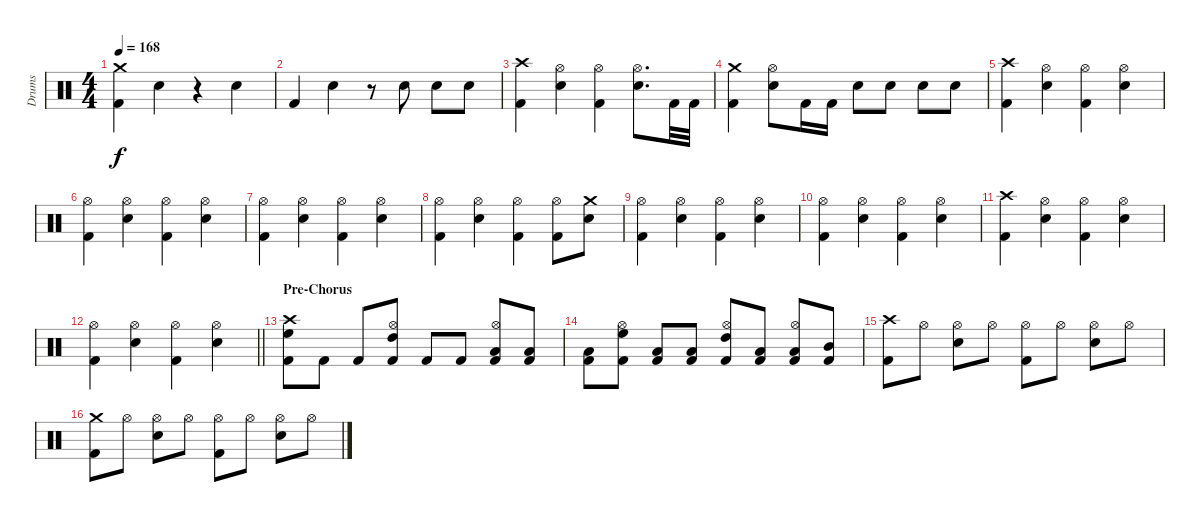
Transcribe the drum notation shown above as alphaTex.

\track ("Drums" "Drums") {instrument percussion}
\staff {score}
\articulation defaults
\ts (4 4)
\tempo 168
\clef neutral
\ks c
("Crash medium (hit)" "Kick (hit) 2").4{dy f} "Snare (hit) 2".4 r.4 "Snare (hit) 2".4 |
"Kick (hit) 2".4 "Snare (hit) 2".4 r.8 "Snare (hit) 2".8 "Snare (hit) 2".8 "Snare (hit) 2".8 |
("Crash high (hit)" "Kick (hit) 2").4 ("Hi-Hat (open)" "Snare (hit) 2").4 ("Hi-Hat (open)" "Kick (hit) 2").4 ("Hi-Hat (open)" "Snare (hit) 2").8{d} "Kick (hit) 2".32 "Kick (hit) 2".32 |
("Crash medium (hit)" "Kick (hit) 2").4 ("Hi-Hat (open)" "Snare (hit) 2").8 "Kick (hit) 2".16 "Kick (hit) 2".16 "Snare (hit) 2".8 "Snare (hit) 2".8 "Snare (hit) 2".8 "Snare (hit) 2".8 |
("Crash high (hit)" "Kick (hit) 2").4 ("Hi-Hat (open)" "Snare (hit) 2").4 ("Hi-Hat (open)" "Kick (hit) 2").4 ("Hi-Hat (open)" "Snare (hit) 2").4 |
("Hi-Hat (open)" "Kick (hit) 2").4 ("Hi-Hat (open)" "Snare (hit) 2").4 ("Hi-Hat (open)" "Kick (hit) 2").4 ("Hi-Hat (open)" "Snare (hit) 2").4 |
("Hi-Hat (open)" "Kick (hit) 2").4 ("Hi-Hat (open)" "Snare (hit) 2").4 ("Hi-Hat (open)" "Kick (hit) 2").4 ("Hi-Hat (open)" "Snare (hit) 2").4 |
("Hi-Hat (open)" "Kick (hit) 2").4 ("Hi-Hat (open)" "Snare (hit) 2").4 ("Hi-Hat (open)" "Kick (hit) 2").4 ("Hi-Hat (open)" "Kick (hit) 2").8 ("Crash medium (hit)" "Snare (hit) 2").8 |
("Hi-Hat (open)" "Kick (hit) 2").4 ("Hi-Hat (open)" "Snare (hit) 2").4 ("Hi-Hat (open)" "Kick (hit) 2").4 ("Hi-Hat (open)" "Snare (hit) 2").4 |
("Hi-Hat (open)" "Kick (hit) 2").4 ("Hi-Hat (open)" "Snare (hit) 2").4 ("Hi-Hat (open)" "Kick (hit) 2").4 ("Hi-Hat (open)" "Snare (hit) 2").4 |
("Crash high (hit)" "Kick (hit) 2").4 ("Hi-Hat (open)" "Snare (hit) 2").4 ("Hi-Hat (open)" "Kick (hit) 2").4 ("Hi-Hat (open)" "Snare (hit) 2").4 |
\barLineRight lightlight
("Hi-Hat (open)" "Kick (hit) 2").4 ("Hi-Hat (open)" "Snare (hit) 2").4 ("Hi-Hat (open)" "Kick (hit) 2").4 ("Hi-Hat (open)" "Snare (hit) 2").4 |
\section ("" "Pre-Chorus")
("Crash high (hit)" "High Floor Tom (hit)" "Kick (hit) 2").8 "Kick (hit) 2".8 "Kick (hit) 2".8 ("Hi-Hat (open)" "High Tom (hit)" "Kick (hit) 2").8 "Kick (hit) 2".8 "Kick (hit) 2".8 ("Hi-Hat (open)" "Low Tom (hit)" "Kick (hit) 2").8 ("Low Tom (hit)" "Kick (hit) 2").8 |
("Low Tom (hit)" "Kick (hit) 2").8 ("Hi-Hat (open)" "High Floor Tom (hit)" "Kick (hit) 2").8 ("Low Tom (hit)" "Kick (hit) 2").8 ("Low Tom (hit)" "Kick (hit) 2").8 ("Hi-Hat (open)" "High Tom (hit)" "Kick (hit) 2").8 ("Low Tom (hit)" "Kick (hit) 2").8 ("Hi-Hat (open)" "Low Tom (hit)" "Kick (hit) 2").8 ("Mid Tom (hit)" "Kick (hit) 2").8 |
("Crash high (hit)" "Kick (hit) 2").8 "Hi-Hat (open)".8 ("Hi-Hat (open)" "Snare (hit) 2").8 "Hi-Hat (open)".8 ("Hi-Hat (open)" "Kick (hit) 2").8 "Hi-Hat (open)".8 ("Hi-Hat (open)" "Snare (hit) 2").8 "Hi-Hat (open)".8 |
("Crash medium (hit)" "Kick (hit) 2").8 "Hi-Hat (open)".8 ("Hi-Hat (open)" "Snare (hit) 2").8 "Hi-Hat (open)".8 ("Hi-Hat (open)" "Kick (hit) 2").8 "Hi-Hat (open)".8 ("Hi-Hat (open)" "Snare (hit) 2").8 "Hi-Hat (open)".8
